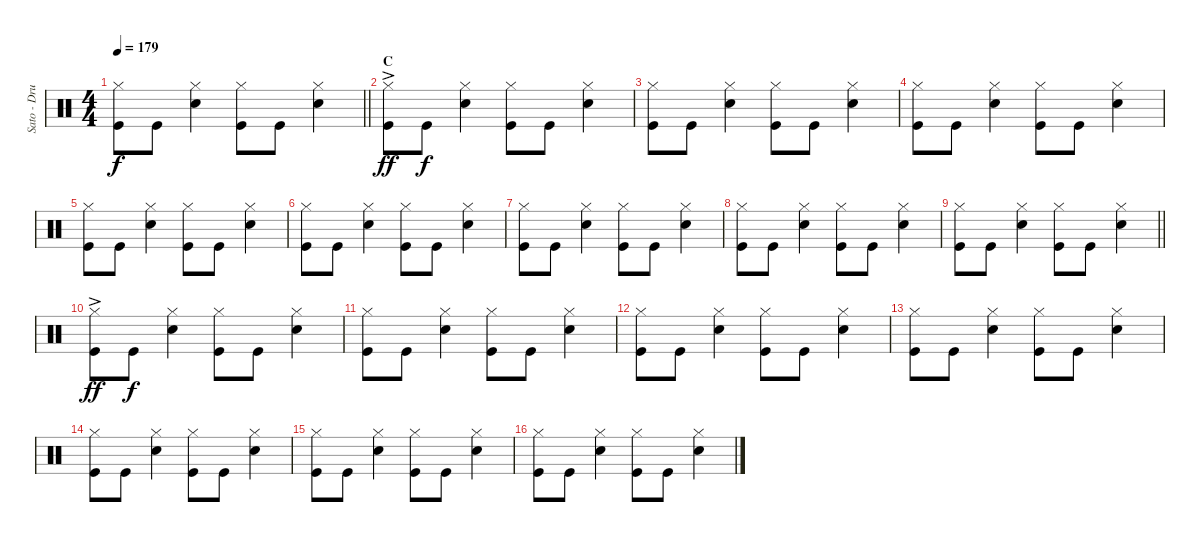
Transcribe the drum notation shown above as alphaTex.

\track ("Sato - Drums" "Sato - Dru") {instrument percussion}
\staff {score}
\articulation defaults
\ts (4 4)
\tempo 179
\clef neutral
\barLineRight lightlight
\ks c
("Hi-Hat (closed)" "Kick (hit)").8{dy f} "Kick (hit)".8 ("Hi-Hat (closed)" "Electric Snare (hit)").4 ("Hi-Hat (closed)" "Kick (hit)").8 "Kick (hit)".8 ("Hi-Hat (closed)" "Electric Snare (hit)").4 |
\section ("" "C")
("Hi-Hat (closed)"{ac} "Kick (hit)"{ac}).8{dy ff} "Kick (hit)".8{dy f} ("Hi-Hat (closed)" "Electric Snare (hit)").4 ("Hi-Hat (closed)" "Kick (hit)").8 "Kick (hit)".8 ("Hi-Hat (closed)" "Electric Snare (hit)").4 |
("Hi-Hat (closed)" "Kick (hit)").8 "Kick (hit)".8 ("Hi-Hat (closed)" "Electric Snare (hit)").4 ("Hi-Hat (closed)" "Kick (hit)").8 "Kick (hit)".8 ("Hi-Hat (closed)" "Electric Snare (hit)").4 |
("Hi-Hat (closed)" "Kick (hit)").8 "Kick (hit)".8 ("Hi-Hat (closed)" "Electric Snare (hit)").4 ("Hi-Hat (closed)" "Kick (hit)").8 "Kick (hit)".8 ("Hi-Hat (closed)" "Electric Snare (hit)").4 |
("Hi-Hat (closed)" "Kick (hit)").8 "Kick (hit)".8 ("Hi-Hat (closed)" "Electric Snare (hit)").4 ("Hi-Hat (closed)" "Kick (hit)").8 "Kick (hit)".8 ("Hi-Hat (closed)" "Electric Snare (hit)").4 |
("Hi-Hat (closed)" "Kick (hit)").8 "Kick (hit)".8 ("Hi-Hat (closed)" "Electric Snare (hit)").4 ("Hi-Hat (closed)" "Kick (hit)").8 "Kick (hit)".8 ("Hi-Hat (closed)" "Electric Snare (hit)").4 |
("Hi-Hat (closed)" "Kick (hit)").8 "Kick (hit)".8 ("Hi-Hat (closed)" "Electric Snare (hit)").4 ("Hi-Hat (closed)" "Kick (hit)").8 "Kick (hit)".8 ("Hi-Hat (closed)" "Electric Snare (hit)").4 |
("Hi-Hat (closed)" "Kick (hit)").8 "Kick (hit)".8 ("Hi-Hat (closed)" "Electric Snare (hit)").4 ("Hi-Hat (closed)" "Kick (hit)").8 "Kick (hit)".8 ("Hi-Hat (closed)" "Electric Snare (hit)").4 |
\barLineRight lightlight
("Hi-Hat (closed)" "Kick (hit)").8 "Kick (hit)".8 ("Hi-Hat (closed)" "Electric Snare (hit)").4 ("Hi-Hat (closed)" "Kick (hit)").8 "Kick (hit)".8 ("Hi-Hat (closed)" "Electric Snare (hit)").4 |
("Hi-Hat (closed)"{ac} "Kick (hit)"{ac}).8{dy ff} "Kick (hit)".8{dy f} ("Hi-Hat (closed)" "Electric Snare (hit)").4 ("Hi-Hat (closed)" "Kick (hit)").8 "Kick (hit)".8 ("Hi-Hat (closed)" "Electric Snare (hit)").4 |
("Hi-Hat (closed)" "Kick (hit)").8 "Kick (hit)".8 ("Hi-Hat (closed)" "Electric Snare (hit)").4 ("Hi-Hat (closed)" "Kick (hit)").8 "Kick (hit)".8 ("Hi-Hat (closed)" "Electric Snare (hit)").4 |
("Hi-Hat (closed)" "Kick (hit)").8 "Kick (hit)".8 ("Hi-Hat (closed)" "Electric Snare (hit)").4 ("Hi-Hat (closed)" "Kick (hit)").8 "Kick (hit)".8 ("Hi-Hat (closed)" "Electric Snare (hit)").4 |
("Hi-Hat (closed)" "Kick (hit)").8 "Kick (hit)".8 ("Hi-Hat (closed)" "Electric Snare (hit)").4 ("Hi-Hat (closed)" "Kick (hit)").8 "Kick (hit)".8 ("Hi-Hat (closed)" "Electric Snare (hit)").4 |
("Hi-Hat (closed)" "Kick (hit)").8 "Kick (hit)".8 ("Hi-Hat (closed)" "Electric Snare (hit)").4 ("Hi-Hat (closed)" "Kick (hit)").8 "Kick (hit)".8 ("Hi-Hat (closed)" "Electric Snare (hit)").4 |
("Hi-Hat (closed)" "Kick (hit)").8 "Kick (hit)".8 ("Hi-Hat (closed)" "Electric Snare (hit)").4 ("Hi-Hat (closed)" "Kick (hit)").8 "Kick (hit)".8 ("Hi-Hat (closed)" "Electric Snare (hit)").4 |
("Hi-Hat (closed)" "Kick (hit)").8 "Kick (hit)".8 ("Hi-Hat (closed)" "Electric Snare (hit)").4 ("Hi-Hat (closed)" "Kick (hit)").8 "Kick (hit)".8 ("Hi-Hat (closed)" "Electric Snare (hit)").4
